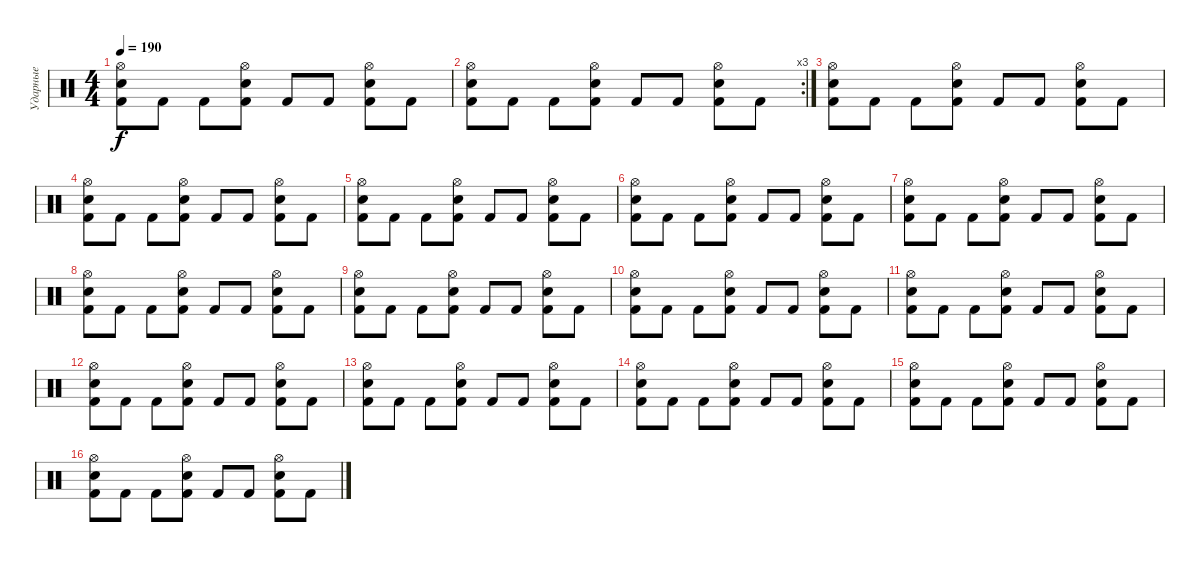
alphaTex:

\track ("Ударные" "Ударные") {instrument percussion}
\staff {score}
\articulation defaults
\ts (4 4)
\tempo 190
\clef neutral
\ks c
("Kick (hit) 2" "Snare (hit) 2" "Hi-Hat (open)").8{dy f} "Kick (hit) 2".8 "Kick (hit) 2".8 ("Kick (hit) 2" "Snare (hit) 2" "Hi-Hat (open)").8 "Kick (hit) 2".8 "Kick (hit) 2".8 ("Kick (hit) 2" "Snare (hit) 2" "Hi-Hat (open)").8 "Kick (hit) 2".8 |
\rc 3
("Kick (hit) 2" "Snare (hit) 2" "Hi-Hat (open)").8 "Kick (hit) 2".8 "Kick (hit) 2".8 ("Kick (hit) 2" "Snare (hit) 2" "Hi-Hat (open)").8 "Kick (hit) 2".8 "Kick (hit) 2".8 ("Kick (hit) 2" "Snare (hit) 2" "Hi-Hat (open)").8 "Kick (hit) 2".8 |
("Kick (hit) 2" "Snare (hit) 2" "Hi-Hat (open)").8 "Kick (hit) 2".8 "Kick (hit) 2".8 ("Kick (hit) 2" "Snare (hit) 2" "Hi-Hat (open)").8 "Kick (hit) 2".8 "Kick (hit) 2".8 ("Kick (hit) 2" "Snare (hit) 2" "Hi-Hat (open)").8 "Kick (hit) 2".8 |
("Kick (hit) 2" "Snare (hit) 2" "Hi-Hat (open)").8 "Kick (hit) 2".8 "Kick (hit) 2".8 ("Kick (hit) 2" "Snare (hit) 2" "Hi-Hat (open)").8 "Kick (hit) 2".8 "Kick (hit) 2".8 ("Kick (hit) 2" "Snare (hit) 2" "Hi-Hat (open)").8 "Kick (hit) 2".8 |
("Kick (hit) 2" "Snare (hit) 2" "Hi-Hat (open)").8 "Kick (hit) 2".8 "Kick (hit) 2".8 ("Kick (hit) 2" "Snare (hit) 2" "Hi-Hat (open)").8 "Kick (hit) 2".8 "Kick (hit) 2".8 ("Kick (hit) 2" "Snare (hit) 2" "Hi-Hat (open)").8 "Kick (hit) 2".8 |
("Kick (hit) 2" "Snare (hit) 2" "Hi-Hat (open)").8 "Kick (hit) 2".8 "Kick (hit) 2".8 ("Kick (hit) 2" "Snare (hit) 2" "Hi-Hat (open)").8 "Kick (hit) 2".8 "Kick (hit) 2".8 ("Kick (hit) 2" "Snare (hit) 2" "Hi-Hat (open)").8 "Kick (hit) 2".8 |
("Kick (hit) 2" "Snare (hit) 2" "Hi-Hat (open)").8 "Kick (hit) 2".8 "Kick (hit) 2".8 ("Kick (hit) 2" "Snare (hit) 2" "Hi-Hat (open)").8 "Kick (hit) 2".8 "Kick (hit) 2".8 ("Kick (hit) 2" "Snare (hit) 2" "Hi-Hat (open)").8 "Kick (hit) 2".8 |
("Kick (hit) 2" "Snare (hit) 2" "Hi-Hat (open)").8 "Kick (hit) 2".8 "Kick (hit) 2".8 ("Kick (hit) 2" "Snare (hit) 2" "Hi-Hat (open)").8 "Kick (hit) 2".8 "Kick (hit) 2".8 ("Kick (hit) 2" "Snare (hit) 2" "Hi-Hat (open)").8 "Kick (hit) 2".8 |
("Kick (hit) 2" "Snare (hit) 2" "Hi-Hat (open)").8 "Kick (hit) 2".8 "Kick (hit) 2".8 ("Kick (hit) 2" "Snare (hit) 2" "Hi-Hat (open)").8 "Kick (hit) 2".8 "Kick (hit) 2".8 ("Kick (hit) 2" "Snare (hit) 2" "Hi-Hat (open)").8 "Kick (hit) 2".8 |
("Kick (hit) 2" "Snare (hit) 2" "Hi-Hat (open)").8 "Kick (hit) 2".8 "Kick (hit) 2".8 ("Kick (hit) 2" "Snare (hit) 2" "Hi-Hat (open)").8 "Kick (hit) 2".8 "Kick (hit) 2".8 ("Kick (hit) 2" "Snare (hit) 2" "Hi-Hat (open)").8 "Kick (hit) 2".8 |
("Kick (hit) 2" "Snare (hit) 2" "Hi-Hat (open)").8 "Kick (hit) 2".8 "Kick (hit) 2".8 ("Kick (hit) 2" "Snare (hit) 2" "Hi-Hat (open)").8 "Kick (hit) 2".8 "Kick (hit) 2".8 ("Kick (hit) 2" "Snare (hit) 2" "Hi-Hat (open)").8 "Kick (hit) 2".8 |
("Kick (hit) 2" "Snare (hit) 2" "Hi-Hat (open)").8 "Kick (hit) 2".8 "Kick (hit) 2".8 ("Kick (hit) 2" "Snare (hit) 2" "Hi-Hat (open)").8 "Kick (hit) 2".8 "Kick (hit) 2".8 ("Kick (hit) 2" "Snare (hit) 2" "Hi-Hat (open)").8 "Kick (hit) 2".8 |
("Kick (hit) 2" "Snare (hit) 2" "Hi-Hat (open)").8 "Kick (hit) 2".8 "Kick (hit) 2".8 ("Kick (hit) 2" "Snare (hit) 2" "Hi-Hat (open)").8 "Kick (hit) 2".8 "Kick (hit) 2".8 ("Kick (hit) 2" "Snare (hit) 2" "Hi-Hat (open)").8 "Kick (hit) 2".8 |
("Kick (hit) 2" "Snare (hit) 2" "Hi-Hat (open)").8 "Kick (hit) 2".8 "Kick (hit) 2".8 ("Kick (hit) 2" "Snare (hit) 2" "Hi-Hat (open)").8 "Kick (hit) 2".8 "Kick (hit) 2".8 ("Kick (hit) 2" "Snare (hit) 2" "Hi-Hat (open)").8 "Kick (hit) 2".8 |
("Kick (hit) 2" "Snare (hit) 2" "Hi-Hat (open)").8 "Kick (hit) 2".8 "Kick (hit) 2".8 ("Kick (hit) 2" "Snare (hit) 2" "Hi-Hat (open)").8 "Kick (hit) 2".8 "Kick (hit) 2".8 ("Kick (hit) 2" "Snare (hit) 2" "Hi-Hat (open)").8 "Kick (hit) 2".8 |
("Kick (hit) 2" "Snare (hit) 2" "Hi-Hat (open)").8 "Kick (hit) 2".8 "Kick (hit) 2".8 ("Kick (hit) 2" "Snare (hit) 2" "Hi-Hat (open)").8 "Kick (hit) 2".8 "Kick (hit) 2".8 ("Kick (hit) 2" "Snare (hit) 2" "Hi-Hat (open)").8 "Kick (hit) 2".8
